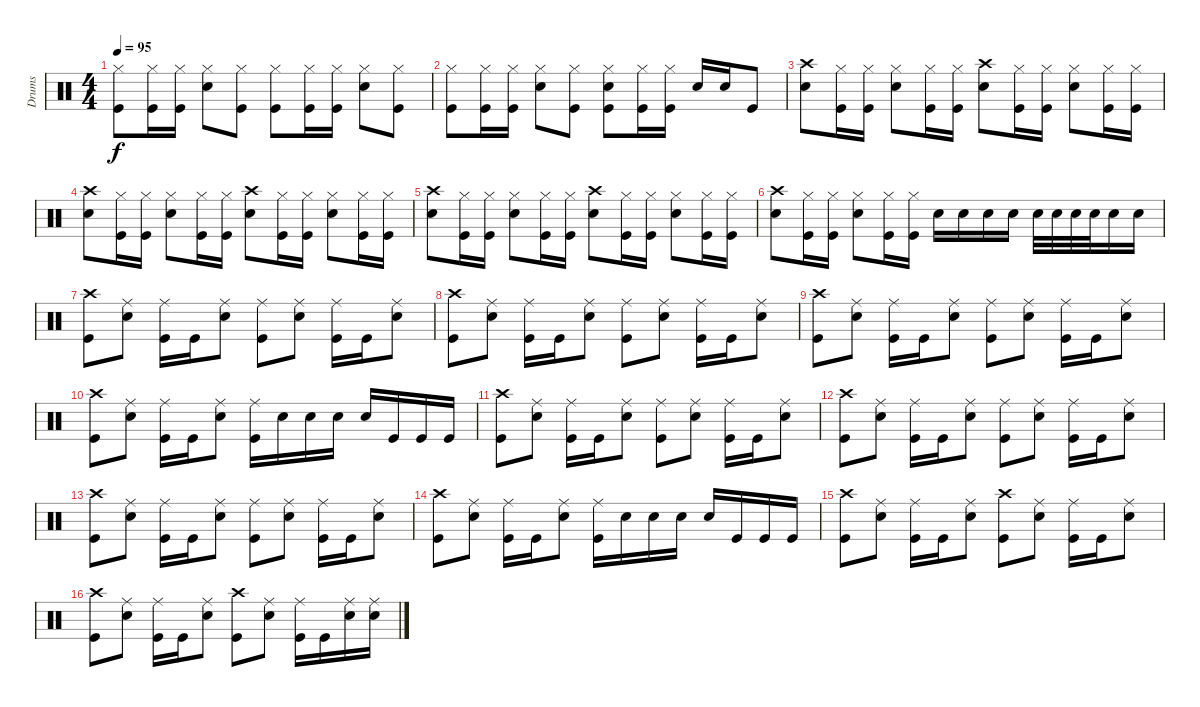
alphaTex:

\track ("Drums" "Drums") {instrument percussion}
\staff {score}
\articulation defaults
\ts (4 4)
\tempo 95
\clef neutral
\ks c
("Hi-Hat (closed)" "Kick (hit)").8{dy f} ("Hi-Hat (closed)" "Kick (hit)").16 ("Hi-Hat (closed)" "Kick (hit)").16 ("Hi-Hat (closed)" "Snare (hit) 2").8 ("Hi-Hat (closed)" "Kick (hit)").8 ("Hi-Hat (closed)" "Kick (hit)").8 ("Hi-Hat (closed)" "Kick (hit)").16 ("Hi-Hat (closed)" "Kick (hit)").16 ("Hi-Hat (closed)" "Snare (hit) 2").8 ("Hi-Hat (closed)" "Kick (hit)").8 |
("Hi-Hat (closed)" "Kick (hit)").8 ("Hi-Hat (closed)" "Kick (hit)").16 ("Hi-Hat (closed)" "Kick (hit)").16 ("Hi-Hat (closed)" "Snare (hit) 2").8 ("Hi-Hat (closed)" "Kick (hit)").8 ("Hi-Hat (closed)" "Snare (hit) 2" "Kick (hit)").8 ("Hi-Hat (closed)" "Kick (hit)").16 ("Hi-Hat (closed)" "Kick (hit)").16 "Snare (hit) 2".16 "Snare (hit) 2".16 "Kick (hit)".8 |
("Crash high (hit)" "Snare (hit) 2").8 ("Hi-Hat (closed)" "Kick (hit)").16 ("Hi-Hat (closed)" "Kick (hit)").16 ("Hi-Hat (closed)" "Snare (hit) 2").8 ("Hi-Hat (closed)" "Kick (hit)").16 ("Hi-Hat (closed)" "Kick (hit)").16 ("Crash high (hit)" "Snare (hit) 2").8 ("Hi-Hat (closed)" "Kick (hit)").16 ("Hi-Hat (closed)" "Kick (hit)").16 ("Hi-Hat (closed)" "Snare (hit) 2").8 ("Hi-Hat (closed)" "Kick (hit)").16 ("Hi-Hat (closed)" "Kick (hit)").16 |
("Crash high (hit)" "Snare (hit) 2").8 ("Hi-Hat (closed)" "Kick (hit)").16 ("Hi-Hat (closed)" "Kick (hit)").16 ("Hi-Hat (closed)" "Snare (hit) 2").8 ("Hi-Hat (closed)" "Kick (hit)").16 ("Hi-Hat (closed)" "Kick (hit)").16 ("Crash high (hit)" "Snare (hit) 2").8 ("Hi-Hat (closed)" "Kick (hit)").16 ("Hi-Hat (closed)" "Kick (hit)").16 ("Hi-Hat (closed)" "Snare (hit) 2").8 ("Hi-Hat (closed)" "Kick (hit)").16 ("Hi-Hat (closed)" "Kick (hit)").16 |
("Crash high (hit)" "Snare (hit) 2").8 ("Hi-Hat (closed)" "Kick (hit)").16 ("Hi-Hat (closed)" "Kick (hit)").16 ("Hi-Hat (closed)" "Snare (hit) 2").8 ("Hi-Hat (closed)" "Kick (hit)").16 ("Hi-Hat (closed)" "Kick (hit)").16 ("Crash high (hit)" "Snare (hit) 2").8 ("Hi-Hat (closed)" "Kick (hit)").16 ("Hi-Hat (closed)" "Kick (hit)").16 ("Hi-Hat (closed)" "Snare (hit) 2").8 ("Hi-Hat (closed)" "Kick (hit)").16 ("Hi-Hat (closed)" "Kick (hit)").16 |
("Crash high (hit)" "Snare (hit) 2").8 ("Hi-Hat (closed)" "Kick (hit)").16 ("Hi-Hat (closed)" "Kick (hit)").16 ("Hi-Hat (closed)" "Snare (hit) 2").8 ("Hi-Hat (closed)" "Kick (hit)").16 ("Hi-Hat (closed)" "Kick (hit)").16 "Snare (hit) 2".16 "Snare (hit) 2".16 "Snare (hit) 2".16 "Snare (hit) 2".16 "Snare (hit) 2".32 "Snare (hit) 2".32 "Snare (hit) 2".32 "Snare (hit) 2".32 "Snare (hit) 2".16 "Snare (hit) 2".16 |
("Crash high (hit)" "Kick (hit)").8 ("Ride (middle)" "Snare (hit) 2").8 ("Ride (middle)" "Kick (hit)").16 "Kick (hit)".16 ("Ride (middle)" "Snare (hit) 2").8 ("Ride (middle)" "Kick (hit)").8 ("Ride (middle)" "Snare (hit) 2").8 ("Ride (middle)" "Kick (hit)").16 "Kick (hit)".16 ("Ride (middle)" "Snare (hit) 2").8 |
("Crash high (hit)" "Kick (hit)").8 ("Ride (middle)" "Snare (hit) 2").8 ("Ride (middle)" "Kick (hit)").16 "Kick (hit)".16 ("Ride (middle)" "Snare (hit) 2").8 ("Ride (middle)" "Kick (hit)").8 ("Ride (middle)" "Snare (hit) 2").8 ("Ride (middle)" "Kick (hit)").16 "Kick (hit)".16 ("Ride (middle)" "Snare (hit) 2").8 |
("Crash high (hit)" "Kick (hit)").8 ("Ride (middle)" "Snare (hit) 2").8 ("Ride (middle)" "Kick (hit)").16 "Kick (hit)".16 ("Ride (middle)" "Snare (hit) 2").8 ("Ride (middle)" "Kick (hit)").8 ("Ride (middle)" "Snare (hit) 2").8 ("Ride (middle)" "Kick (hit)").16 "Kick (hit)".16 ("Ride (middle)" "Snare (hit) 2").8 |
("Crash high (hit)" "Kick (hit)").8 ("Ride (middle)" "Snare (hit) 2").8 ("Ride (middle)" "Kick (hit)").16 "Kick (hit)".16 ("Ride (middle)" "Snare (hit) 2").8 ("Ride (middle)" "Kick (hit)").16 "Snare (hit) 2".16 "Snare (hit) 2".16 "Snare (hit) 2".16 "Snare (hit) 2".16 "Kick (hit)".16 "Kick (hit)".16 "Kick (hit)".16 |
("Crash high (hit)" "Kick (hit)").8 ("Ride (middle)" "Snare (hit) 2").8 ("Ride (middle)" "Kick (hit)").16 "Kick (hit)".16 ("Ride (middle)" "Snare (hit) 2").8 ("Ride (middle)" "Kick (hit)").8 ("Ride (middle)" "Snare (hit) 2").8 ("Ride (middle)" "Kick (hit)").16 "Kick (hit)".16 ("Ride (middle)" "Snare (hit) 2").8 |
("Crash high (hit)" "Kick (hit)").8 ("Ride (middle)" "Snare (hit) 2").8 ("Ride (middle)" "Kick (hit)").16 "Kick (hit)".16 ("Ride (middle)" "Snare (hit) 2").8 ("Ride (middle)" "Kick (hit)").8 ("Ride (middle)" "Snare (hit) 2").8 ("Ride (middle)" "Kick (hit)").16 "Kick (hit)".16 ("Ride (middle)" "Snare (hit) 2").8 |
("Crash high (hit)" "Kick (hit)").8 ("Ride (middle)" "Snare (hit) 2").8 ("Ride (middle)" "Kick (hit)").16 "Kick (hit)".16 ("Ride (middle)" "Snare (hit) 2").8 ("Ride (middle)" "Kick (hit)").8 ("Ride (middle)" "Snare (hit) 2").8 ("Ride (middle)" "Kick (hit)").16 "Kick (hit)".16 ("Ride (middle)" "Snare (hit) 2").8 |
("Crash high (hit)" "Kick (hit)").8 ("Ride (middle)" "Snare (hit) 2").8 ("Ride (middle)" "Kick (hit)").16 "Kick (hit)".16 ("Ride (middle)" "Snare (hit) 2").8 ("Ride (middle)" "Kick (hit)").16 "Snare (hit) 2".16 "Snare (hit) 2".16 "Snare (hit) 2".16 "Snare (hit) 2".16 "Kick (hit)".16 "Kick (hit)".16 "Kick (hit)".16 |
("Crash high (hit)" "Kick (hit)").8 ("Ride (middle)" "Snare (hit) 2").8 ("Ride (middle)" "Kick (hit)").16 "Kick (hit)".16 ("Ride (middle)" "Snare (hit) 2").8 ("Crash high (hit)" "Kick (hit)").8 ("Ride (middle)" "Snare (hit) 2").8 ("Ride (middle)" "Kick (hit)").16 "Kick (hit)".16 ("Ride (middle)" "Snare (hit) 2").8 |
("Crash high (hit)" "Kick (hit)").8 ("Ride (middle)" "Snare (hit) 2").8 ("Ride (middle)" "Kick (hit)").16 "Kick (hit)".16 ("Ride (middle)" "Snare (hit) 2").8 ("Crash high (hit)" "Kick (hit)").8 ("Ride (middle)" "Snare (hit) 2").8 ("Ride (middle)" "Kick (hit)").16 "Kick (hit)".16 ("Ride (middle)" "Snare (hit) 2").16 ("Ride (middle)" "Snare (hit) 2").16
